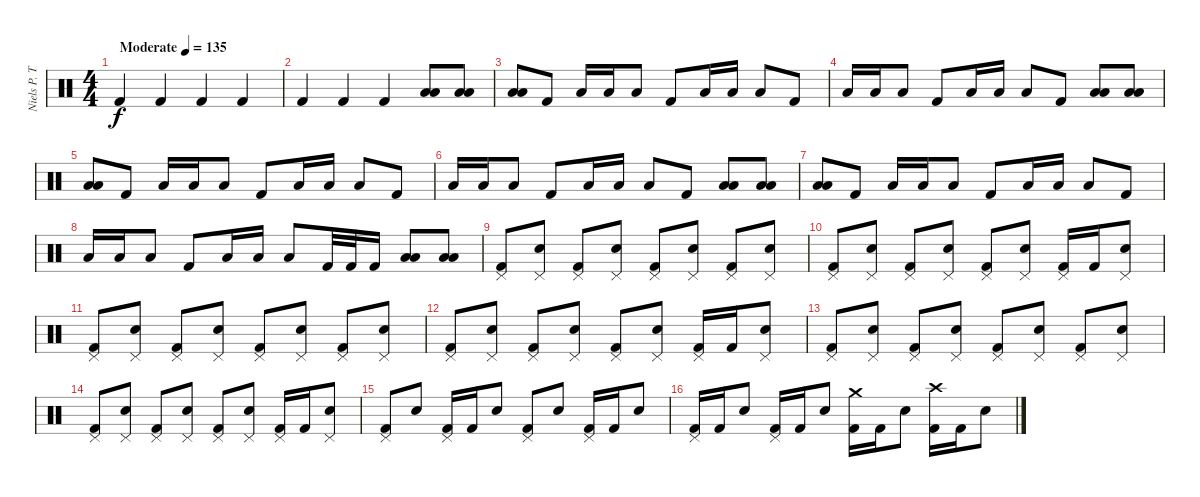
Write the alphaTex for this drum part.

\track ("Niels P. Thogersen" "Niels P. T") {instrument percussion}
\staff {score}
\articulation defaults
\ts (4 4)
\tempo (135 "Moderate")
\clef neutral
\ks c "Kick (hit) 2".4{dy f} "Kick (hit) 2".4 "Kick (hit) 2".4 "Kick (hit) 2".4
|
"Kick (hit) 2".4 "Kick (hit) 2".4 "Kick (hit) 2".4 ("Low Tom (hit)" "Low Floor Tom (hit)").8 ("Low Tom (hit)" "Low Floor Tom (hit)").8 |
("Low Tom (hit)" "Low Floor Tom (hit)").8 "Kick (hit) 2".8 "Low Floor Tom (hit)".16 "Low Floor Tom (hit)".16 "Low Floor Tom (hit)".8 "Kick (hit) 2".8 "Low Floor Tom (hit)".16 "Low Floor Tom (hit)".16 "Low Floor Tom (hit)".8 "Kick (hit) 2".8 |
"Low Floor Tom (hit)".16 "Low Floor Tom (hit)".16 "Low Floor Tom (hit)".8 "Kick (hit) 2".8 "Low Floor Tom (hit)".16 "Low Floor Tom (hit)".16 "Low Floor Tom (hit)".8 "Kick (hit) 2".8 ("Low Tom (hit)" "Low Floor Tom (hit)").8 ("Low Tom (hit)" "Low Floor Tom (hit)").8 |
("Low Tom (hit)" "Low Floor Tom (hit)").8 "Kick (hit) 2".8 "Low Floor Tom (hit)".16 "Low Floor Tom (hit)".16 "Low Floor Tom (hit)".8 "Kick (hit) 2".8 "Low Floor Tom (hit)".16 "Low Floor Tom (hit)".16 "Low Floor Tom (hit)".8 "Kick (hit) 2".8 |
"Low Floor Tom (hit)".16 "Low Floor Tom (hit)".16 "Low Floor Tom (hit)".8 "Kick (hit) 2".8 "Low Floor Tom (hit)".16 "Low Floor Tom (hit)".16 "Low Floor Tom (hit)".8 "Kick (hit) 2".8 ("Low Tom (hit)" "Low Floor Tom (hit)").8 ("Low Tom (hit)" "Low Floor Tom (hit)").8 |
("Low Tom (hit)" "Low Floor Tom (hit)").8 "Kick (hit) 2".8 "Low Floor Tom (hit)".16 "Low Floor Tom (hit)".16 "Low Floor Tom (hit)".8 "Kick (hit) 2".8 "Low Floor Tom (hit)".16 "Low Floor Tom (hit)".16 "Low Floor Tom (hit)".8 "Kick (hit) 2".8 |
"Low Floor Tom (hit)".16 "Low Floor Tom (hit)".16 "Low Floor Tom (hit)".8 "Kick (hit) 2".8 "Low Floor Tom (hit)".16 "Low Floor Tom (hit)".16 "Low Floor Tom (hit)".8 "Kick (hit) 2".32 "Kick (hit) 2".32 "Kick (hit) 2".16 ("Low Tom (hit)" "Low Floor Tom (hit)").8 ("Low Tom (hit)" "Low Floor Tom (hit)").8 |
("Pedal Hi-Hat (hit)" "Kick (hit) 2").8 ("Pedal Hi-Hat (hit)" "Snare (hit) 2").8 ("Pedal Hi-Hat (hit)" "Kick (hit) 2").8 ("Pedal Hi-Hat (hit)" "Snare (hit) 2").8 ("Pedal Hi-Hat (hit)" "Kick (hit) 2").8 ("Pedal Hi-Hat (hit)" "Snare (hit) 2").8 ("Pedal Hi-Hat (hit)" "Kick (hit) 2").8 ("Pedal Hi-Hat (hit)" "Snare (hit) 2").8 |
("Pedal Hi-Hat (hit)" "Kick (hit) 2").8 ("Pedal Hi-Hat (hit)" "Snare (hit) 2").8 ("Pedal Hi-Hat (hit)" "Kick (hit) 2").8 ("Pedal Hi-Hat (hit)" "Snare (hit) 2").8 ("Pedal Hi-Hat (hit)" "Kick (hit) 2").8 ("Pedal Hi-Hat (hit)" "Snare (hit) 2").8 ("Pedal Hi-Hat (hit)" "Kick (hit) 2").16 "Kick (hit) 2".16 ("Pedal Hi-Hat (hit)" "Snare (hit) 2").8 |
("Pedal Hi-Hat (hit)" "Kick (hit) 2").8 ("Pedal Hi-Hat (hit)" "Snare (hit) 2").8 ("Pedal Hi-Hat (hit)" "Kick (hit) 2").8 ("Pedal Hi-Hat (hit)" "Snare (hit) 2").8 ("Pedal Hi-Hat (hit)" "Kick (hit) 2").8 ("Pedal Hi-Hat (hit)" "Snare (hit) 2").8 ("Pedal Hi-Hat (hit)" "Kick (hit) 2").8 ("Pedal Hi-Hat (hit)" "Snare (hit) 2").8 |
("Pedal Hi-Hat (hit)" "Kick (hit) 2").8 ("Pedal Hi-Hat (hit)" "Snare (hit) 2").8 ("Pedal Hi-Hat (hit)" "Kick (hit) 2").8 ("Pedal Hi-Hat (hit)" "Snare (hit) 2").8 ("Pedal Hi-Hat (hit)" "Kick (hit) 2").8 ("Pedal Hi-Hat (hit)" "Snare (hit) 2").8 ("Pedal Hi-Hat (hit)" "Kick (hit) 2").16 "Kick (hit) 2".16 ("Pedal Hi-Hat (hit)" "Snare (hit) 2").8 |
("Pedal Hi-Hat (hit)" "Kick (hit) 2").8 ("Pedal Hi-Hat (hit)" "Snare (hit) 2").8 ("Pedal Hi-Hat (hit)" "Kick (hit) 2").8 ("Pedal Hi-Hat (hit)" "Snare (hit) 2").8 ("Pedal Hi-Hat (hit)" "Kick (hit) 2").8 ("Pedal Hi-Hat (hit)" "Snare (hit) 2").8 ("Pedal Hi-Hat (hit)" "Kick (hit) 2").8 ("Pedal Hi-Hat (hit)" "Snare (hit) 2").8 |
("Pedal Hi-Hat (hit)" "Kick (hit) 2").8 ("Pedal Hi-Hat (hit)" "Snare (hit) 2").8 ("Pedal Hi-Hat (hit)" "Kick (hit) 2").8 ("Pedal Hi-Hat (hit)" "Snare (hit) 2").8 ("Pedal Hi-Hat (hit)" "Kick (hit) 2").8 ("Pedal Hi-Hat (hit)" "Snare (hit) 2").8 ("Pedal Hi-Hat (hit)" "Kick (hit) 2").16 "Kick (hit) 2".16 ("Pedal Hi-Hat (hit)" "Snare (hit) 2").8 |
("Pedal Hi-Hat (hit)" "Kick (hit) 2").8 "Snare (hit) 2".8 ("Pedal Hi-Hat (hit)" "Kick (hit) 2").16 "Kick (hit) 2".16 "Snare (hit) 2".8 ("Pedal Hi-Hat (hit)" "Kick (hit) 2").8 "Snare (hit) 2".8 ("Pedal Hi-Hat (hit)" "Kick (hit) 2").16 "Kick (hit) 2".16 "Snare (hit) 2".8 |
("Pedal Hi-Hat (hit)" "Kick (hit) 2").16 "Kick (hit) 2".16 "Snare (hit) 2".8 ("Pedal Hi-Hat (hit)" "Kick (hit) 2").16 "Kick (hit) 2".16 "Snare (hit) 2".8 ("Crash medium (hit)" "Kick (hit) 2").16 "Kick (hit) 2".16 "Snare (hit) 2".8 ("Crash high (hit)" "Kick (hit) 2").16 "Kick (hit) 2".16 "Snare (hit) 2".8
